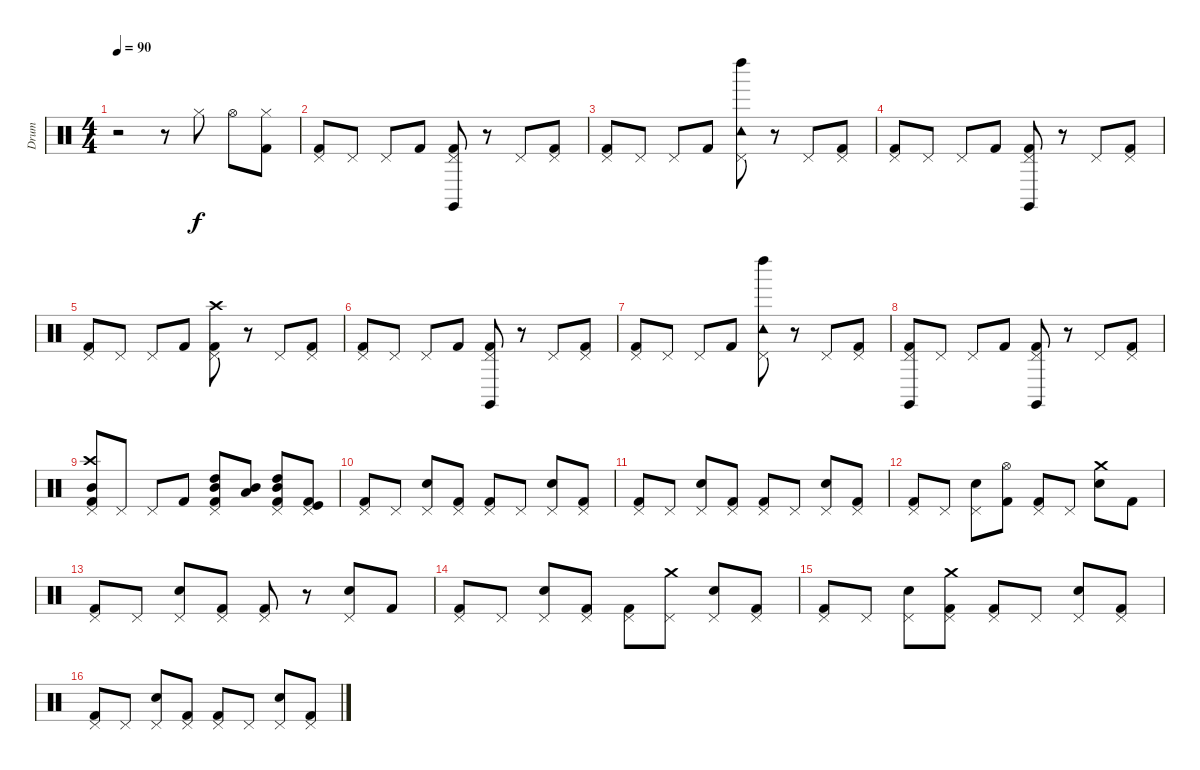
\track ("Drum" "Drum") {instrument percussion}
\staff {score}
\articulation defaults
\ts (4 4)
\tempo 90
\clef neutral
\ks c
r.2{dy f} r.8 "Hi-Hat (closed)".8 "Hi-Hat (open)".8 ("Hi-Hat (closed)" "Kick (hit) 2").8 |
("Pedal Hi-Hat (hit)" "Kick (hit) 2").8 "Pedal Hi-Hat (hit)".8 "Pedal Hi-Hat (hit)".8 "Kick (hit) 2".8 ("Pedal Hi-Hat (hit)" "Kick (hit) 2" "Claves (hit)").8 r.8 "Pedal Hi-Hat (hit)".8 ("Pedal Hi-Hat (hit)" "Kick (hit) 2").8 |
("Pedal Hi-Hat (hit)" "Kick (hit) 2").8 "Pedal Hi-Hat (hit)".8 "Pedal Hi-Hat (hit)".8 "Kick (hit) 2".8 ("Pedal Hi-Hat (hit)" "Tambourine (hit)" "Left Maraca (hit)").8{volume 4} r.8{volume 4} "Pedal Hi-Hat (hit)".8 ("Pedal Hi-Hat (hit)" "Kick (hit) 2").8 |
("Pedal Hi-Hat (hit)" "Kick (hit) 2").8 "Pedal Hi-Hat (hit)".8 "Pedal Hi-Hat (hit)".8 "Kick (hit) 2".8 ("Pedal Hi-Hat (hit)" "Kick (hit) 2" "Claves (hit)").8 r.8 "Pedal Hi-Hat (hit)".8 ("Pedal Hi-Hat (hit)" "Kick (hit) 2").8 |
("Pedal Hi-Hat (hit)" "Kick (hit) 2").8 "Pedal Hi-Hat (hit)".8 "Pedal Hi-Hat (hit)".8 "Kick (hit) 2".8 ("Pedal Hi-Hat (hit)" "Crash high (hit)" "Kick (hit) 2").8{volume 4} r.8 "Pedal Hi-Hat (hit)".8 ("Pedal Hi-Hat (hit)" "Kick (hit) 2").8 |
("Pedal Hi-Hat (hit)" "Kick (hit) 2").8 "Pedal Hi-Hat (hit)".8 "Pedal Hi-Hat (hit)".8 "Kick (hit) 2".8 ("Pedal Hi-Hat (hit)" "Kick (hit) 2" "Claves (hit)").8 r.8 "Pedal Hi-Hat (hit)".8 ("Pedal Hi-Hat (hit)" "Kick (hit) 2").8 |
("Pedal Hi-Hat (hit)" "Kick (hit) 2").8 "Pedal Hi-Hat (hit)".8 "Pedal Hi-Hat (hit)".8 "Kick (hit) 2".8 ("Pedal Hi-Hat (hit)" "Tambourine (hit)" "Left Maraca (hit)").8{volume 4} r.8{volume 3} "Pedal Hi-Hat (hit)".8 ("Pedal Hi-Hat (hit)" "Kick (hit) 2").8 |
("Pedal Hi-Hat (hit)" "Kick (hit) 2" "Claves (hit)").8 "Pedal Hi-Hat (hit)".8 "Pedal Hi-Hat (hit)".8 "Kick (hit) 2".8 ("Pedal Hi-Hat (hit)" "Kick (hit) 2" "Claves (hit)").8 r.8 "Pedal Hi-Hat (hit)".8 ("Pedal Hi-Hat (hit)" "Kick (hit) 2").8 |
("Pedal Hi-Hat (hit)" "Crash high (hit)" "Kick (hit) 2" "Mid Tom (hit)").8 "Pedal Hi-Hat (hit)".8 "Pedal Hi-Hat (hit)".8 "Kick (hit) 2".8 ("Pedal Hi-Hat (hit)" "Kick (hit) 2" "Mid Tom (hit)" "High Tom (hit)").8{volume 5} ("Low Tom (hit)" "Mid Tom (hit)").8{volume 6} ("Pedal Hi-Hat (hit)" "Kick (hit) 2" "Mid Tom (hit)" "High Tom (hit)").8{volume 7} ("Pedal Hi-Hat (hit)" "Kick (hit) 2" "Kick (hit)").8{volume 8} |
("Pedal Hi-Hat (hit)" "Kick (hit) 2").8 "Pedal Hi-Hat (hit)".8 ("Pedal Hi-Hat (hit)" "Snare (hit) 2").8 ("Pedal Hi-Hat (hit)" "Kick (hit) 2").8 ("Pedal Hi-Hat (hit)" "Kick (hit) 2").8 "Pedal Hi-Hat (hit)".8 ("Pedal Hi-Hat (hit)" "Snare (hit) 2").8 ("Pedal Hi-Hat (hit)" "Kick (hit) 2").8 |
("Pedal Hi-Hat (hit)" "Kick (hit) 2").8 "Pedal Hi-Hat (hit)".8 ("Pedal Hi-Hat (hit)" "Snare (hit) 2").8 ("Pedal Hi-Hat (hit)" "Kick (hit) 2").8 ("Pedal Hi-Hat (hit)" "Kick (hit) 2").8 "Pedal Hi-Hat (hit)".8 ("Pedal Hi-Hat (hit)" "Snare (hit) 2").8 ("Pedal Hi-Hat (hit)" "Kick (hit) 2").8 |
("Pedal Hi-Hat (hit)" "Kick (hit) 2").8 "Pedal Hi-Hat (hit)".8 ("Pedal Hi-Hat (hit)" "Snare (hit) 2").8 ("Hi-Hat (open)" "Kick (hit) 2").8 ("Pedal Hi-Hat (hit)" "Kick (hit) 2").8 "Pedal Hi-Hat (hit)".8 ("Snare (hit) 2" "Crash medium (hit)").8 "Kick (hit) 2".8 |
("Pedal Hi-Hat (hit)" "Kick (hit) 2").8 "Pedal Hi-Hat (hit)".8 ("Pedal Hi-Hat (hit)" "Snare (hit) 2").8 ("Pedal Hi-Hat (hit)" "Kick (hit) 2").8 ("Pedal Hi-Hat (hit)" "Kick (hit) 2").8 r.8 ("Pedal Hi-Hat (hit)" "Snare (hit) 2").8 "Kick (hit) 2".8 |
("Pedal Hi-Hat (hit)" "Kick (hit) 2").8 "Pedal Hi-Hat (hit)".8 ("Pedal Hi-Hat (hit)" "Snare (hit) 2").8 ("Pedal Hi-Hat (hit)" "Kick (hit) 2").8 ("Pedal Hi-Hat (hit)" "Kick (hit) 2").8 ("Pedal Hi-Hat (hit)" "Crash medium (hit)").8 ("Pedal Hi-Hat (hit)" "Snare (hit) 2").8 ("Pedal Hi-Hat (hit)" "Kick (hit) 2").8 |
("Pedal Hi-Hat (hit)" "Kick (hit) 2").8 "Pedal Hi-Hat (hit)".8 ("Pedal Hi-Hat (hit)" "Snare (hit) 2").8 ("Pedal Hi-Hat (hit)" "Kick (hit) 2" "Crash medium (hit)").8 ("Pedal Hi-Hat (hit)" "Kick (hit) 2").8 "Pedal Hi-Hat (hit)".8 ("Pedal Hi-Hat (hit)" "Snare (hit) 2").8 ("Pedal Hi-Hat (hit)" "Kick (hit) 2").8 |
("Pedal Hi-Hat (hit)" "Kick (hit) 2").8 "Pedal Hi-Hat (hit)".8 ("Pedal Hi-Hat (hit)" "Snare (hit) 2").8 ("Pedal Hi-Hat (hit)" "Kick (hit) 2").8 ("Pedal Hi-Hat (hit)" "Kick (hit) 2").8 "Pedal Hi-Hat (hit)".8 ("Pedal Hi-Hat (hit)" "Snare (hit) 2").8 ("Pedal Hi-Hat (hit)" "Kick (hit) 2").8
